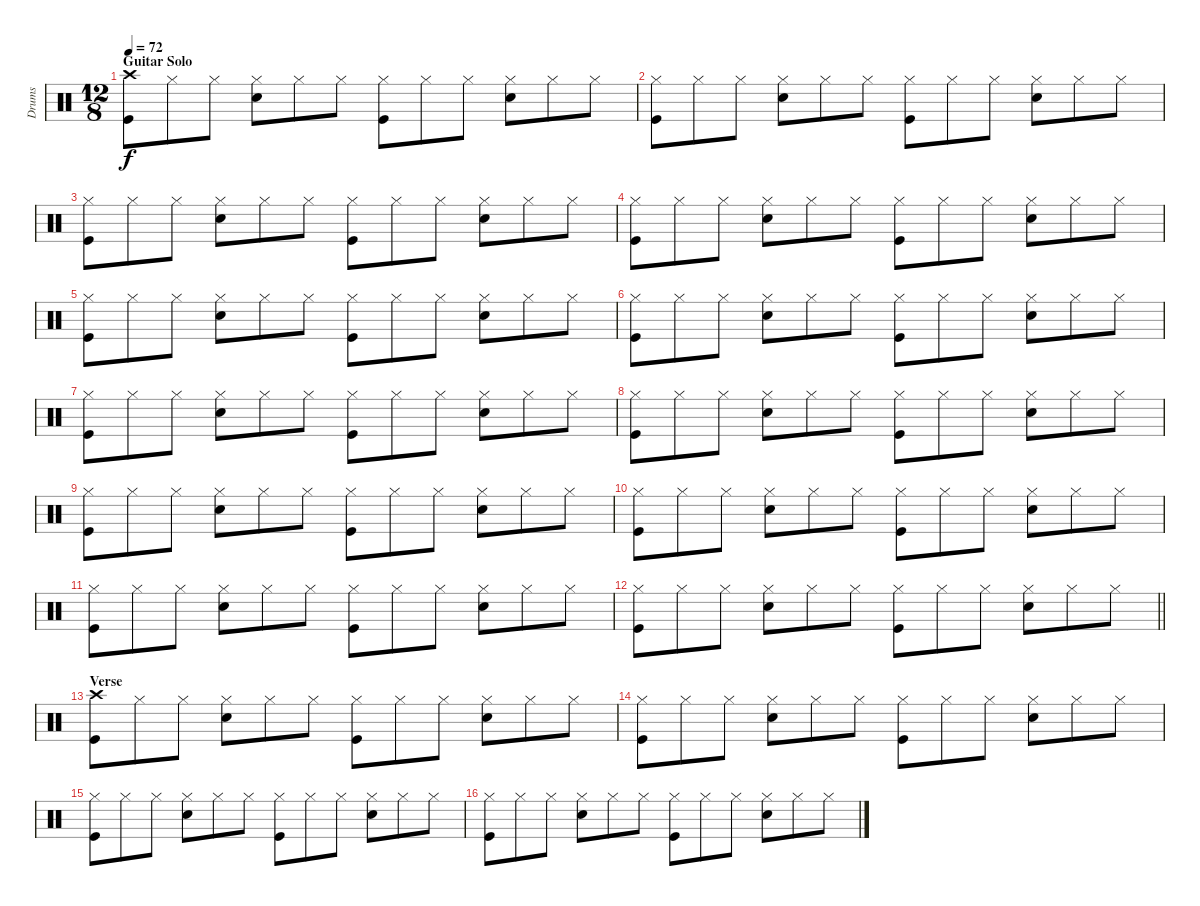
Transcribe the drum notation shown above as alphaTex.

\track ("Drums" "Drums") {instrument percussion}
\staff {score}
\articulation defaults
\ts (12 8)
\section ("" "Guitar Solo")
\tempo 72
\clef neutral
\ks c
("Crash high (hit)" "Kick (hit)").8{dy f} "Hi-Hat (closed)".8 "Hi-Hat (closed)".8 ("Hi-Hat (closed)" "Snare (hit) 2").8 "Hi-Hat (closed)".8 "Hi-Hat (closed)".8 ("Hi-Hat (closed)" "Kick (hit)").8 "Hi-Hat (closed)".8 "Hi-Hat (closed)".8 ("Hi-Hat (closed)" "Snare (hit) 2").8 "Hi-Hat (closed)".8 "Hi-Hat (closed)".8 |
("Hi-Hat (closed)" "Kick (hit)").8 "Hi-Hat (closed)".8 "Hi-Hat (closed)".8 ("Hi-Hat (closed)" "Snare (hit) 2").8 "Hi-Hat (closed)".8 "Hi-Hat (closed)".8 ("Hi-Hat (closed)" "Kick (hit)").8 "Hi-Hat (closed)".8 "Hi-Hat (closed)".8 ("Hi-Hat (closed)" "Snare (hit) 2").8 "Hi-Hat (closed)".8 "Hi-Hat (closed)".8 |
("Hi-Hat (closed)" "Kick (hit)").8 "Hi-Hat (closed)".8 "Hi-Hat (closed)".8 ("Hi-Hat (closed)" "Snare (hit) 2").8 "Hi-Hat (closed)".8 "Hi-Hat (closed)".8 ("Hi-Hat (closed)" "Kick (hit)").8 "Hi-Hat (closed)".8 "Hi-Hat (closed)".8 ("Hi-Hat (closed)" "Snare (hit) 2").8 "Hi-Hat (closed)".8 "Hi-Hat (closed)".8 |
("Hi-Hat (closed)" "Kick (hit)").8 "Hi-Hat (closed)".8 "Hi-Hat (closed)".8 ("Hi-Hat (closed)" "Snare (hit) 2").8 "Hi-Hat (closed)".8 "Hi-Hat (closed)".8 ("Hi-Hat (closed)" "Kick (hit)").8 "Hi-Hat (closed)".8 "Hi-Hat (closed)".8 ("Hi-Hat (closed)" "Snare (hit) 2").8 "Hi-Hat (closed)".8 "Hi-Hat (closed)".8 |
("Hi-Hat (closed)" "Kick (hit)").8 "Hi-Hat (closed)".8 "Hi-Hat (closed)".8 ("Hi-Hat (closed)" "Snare (hit) 2").8 "Hi-Hat (closed)".8 "Hi-Hat (closed)".8 ("Hi-Hat (closed)" "Kick (hit)").8 "Hi-Hat (closed)".8 "Hi-Hat (closed)".8 ("Hi-Hat (closed)" "Snare (hit) 2").8 "Hi-Hat (closed)".8 "Hi-Hat (closed)".8 |
("Hi-Hat (closed)" "Kick (hit)").8 "Hi-Hat (closed)".8 "Hi-Hat (closed)".8 ("Hi-Hat (closed)" "Snare (hit) 2").8 "Hi-Hat (closed)".8 "Hi-Hat (closed)".8 ("Hi-Hat (closed)" "Kick (hit)").8 "Hi-Hat (closed)".8 "Hi-Hat (closed)".8 ("Hi-Hat (closed)" "Snare (hit) 2").8 "Hi-Hat (closed)".8 "Hi-Hat (closed)".8 |
("Hi-Hat (closed)" "Kick (hit)").8 "Hi-Hat (closed)".8 "Hi-Hat (closed)".8 ("Hi-Hat (closed)" "Snare (hit) 2").8 "Hi-Hat (closed)".8 "Hi-Hat (closed)".8 ("Hi-Hat (closed)" "Kick (hit)").8 "Hi-Hat (closed)".8 "Hi-Hat (closed)".8 ("Hi-Hat (closed)" "Snare (hit) 2").8 "Hi-Hat (closed)".8 "Hi-Hat (closed)".8 |
("Hi-Hat (closed)" "Kick (hit)").8 "Hi-Hat (closed)".8 "Hi-Hat (closed)".8 ("Hi-Hat (closed)" "Snare (hit) 2").8 "Hi-Hat (closed)".8 "Hi-Hat (closed)".8 ("Hi-Hat (closed)" "Kick (hit)").8 "Hi-Hat (closed)".8 "Hi-Hat (closed)".8 ("Hi-Hat (closed)" "Snare (hit) 2").8 "Hi-Hat (closed)".8 "Hi-Hat (closed)".8 |
("Hi-Hat (closed)" "Kick (hit)").8 "Hi-Hat (closed)".8 "Hi-Hat (closed)".8 ("Hi-Hat (closed)" "Snare (hit) 2").8 "Hi-Hat (closed)".8 "Hi-Hat (closed)".8 ("Hi-Hat (closed)" "Kick (hit)").8 "Hi-Hat (closed)".8 "Hi-Hat (closed)".8 ("Hi-Hat (closed)" "Snare (hit) 2").8 "Hi-Hat (closed)".8 "Hi-Hat (closed)".8 |
("Hi-Hat (closed)" "Kick (hit)").8 "Hi-Hat (closed)".8 "Hi-Hat (closed)".8 ("Hi-Hat (closed)" "Snare (hit) 2").8 "Hi-Hat (closed)".8 "Hi-Hat (closed)".8 ("Hi-Hat (closed)" "Kick (hit)").8 "Hi-Hat (closed)".8 "Hi-Hat (closed)".8 ("Hi-Hat (closed)" "Snare (hit) 2").8 "Hi-Hat (closed)".8 "Hi-Hat (closed)".8 |
("Hi-Hat (closed)" "Kick (hit)").8 "Hi-Hat (closed)".8 "Hi-Hat (closed)".8 ("Hi-Hat (closed)" "Snare (hit) 2").8 "Hi-Hat (closed)".8 "Hi-Hat (closed)".8 ("Hi-Hat (closed)" "Kick (hit)").8 "Hi-Hat (closed)".8 "Hi-Hat (closed)".8 ("Hi-Hat (closed)" "Snare (hit) 2").8 "Hi-Hat (closed)".8 "Hi-Hat (closed)".8 |
\barLineRight lightlight
("Hi-Hat (closed)" "Kick (hit)").8 "Hi-Hat (closed)".8 "Hi-Hat (closed)".8 ("Hi-Hat (closed)" "Snare (hit) 2").8 "Hi-Hat (closed)".8 "Hi-Hat (closed)".8 ("Hi-Hat (closed)" "Kick (hit)").8 "Hi-Hat (closed)".8 "Hi-Hat (closed)".8 ("Hi-Hat (closed)" "Snare (hit) 2").8 "Hi-Hat (closed)".8 "Hi-Hat (closed)".8 |
\section ("" "Verse")
("Crash high (hit)" "Kick (hit)").8 "Hi-Hat (closed)".8 "Hi-Hat (closed)".8 ("Hi-Hat (closed)" "Snare (hit) 2").8 "Hi-Hat (closed)".8 "Hi-Hat (closed)".8 ("Hi-Hat (closed)" "Kick (hit)").8 "Hi-Hat (closed)".8 "Hi-Hat (closed)".8 ("Hi-Hat (closed)" "Snare (hit) 2").8 "Hi-Hat (closed)".8 "Hi-Hat (closed)".8 |
("Hi-Hat (closed)" "Kick (hit)").8 "Hi-Hat (closed)".8 "Hi-Hat (closed)".8 ("Hi-Hat (closed)" "Snare (hit) 2").8 "Hi-Hat (closed)".8 "Hi-Hat (closed)".8 ("Hi-Hat (closed)" "Kick (hit)").8 "Hi-Hat (closed)".8 "Hi-Hat (closed)".8 ("Hi-Hat (closed)" "Snare (hit) 2").8 "Hi-Hat (closed)".8 "Hi-Hat (closed)".8 |
("Hi-Hat (closed)" "Kick (hit)").8 "Hi-Hat (closed)".8 "Hi-Hat (closed)".8 ("Hi-Hat (closed)" "Snare (hit) 2").8 "Hi-Hat (closed)".8 "Hi-Hat (closed)".8 ("Hi-Hat (closed)" "Kick (hit)").8 "Hi-Hat (closed)".8 "Hi-Hat (closed)".8 ("Hi-Hat (closed)" "Snare (hit) 2").8 "Hi-Hat (closed)".8 "Hi-Hat (closed)".8 |
("Hi-Hat (closed)" "Kick (hit)").8 "Hi-Hat (closed)".8 "Hi-Hat (closed)".8 ("Hi-Hat (closed)" "Snare (hit) 2").8 "Hi-Hat (closed)".8 "Hi-Hat (closed)".8 ("Hi-Hat (closed)" "Kick (hit)").8 "Hi-Hat (closed)".8 "Hi-Hat (closed)".8 ("Hi-Hat (closed)" "Snare (hit) 2").8 "Hi-Hat (closed)".8 "Hi-Hat (closed)".8
